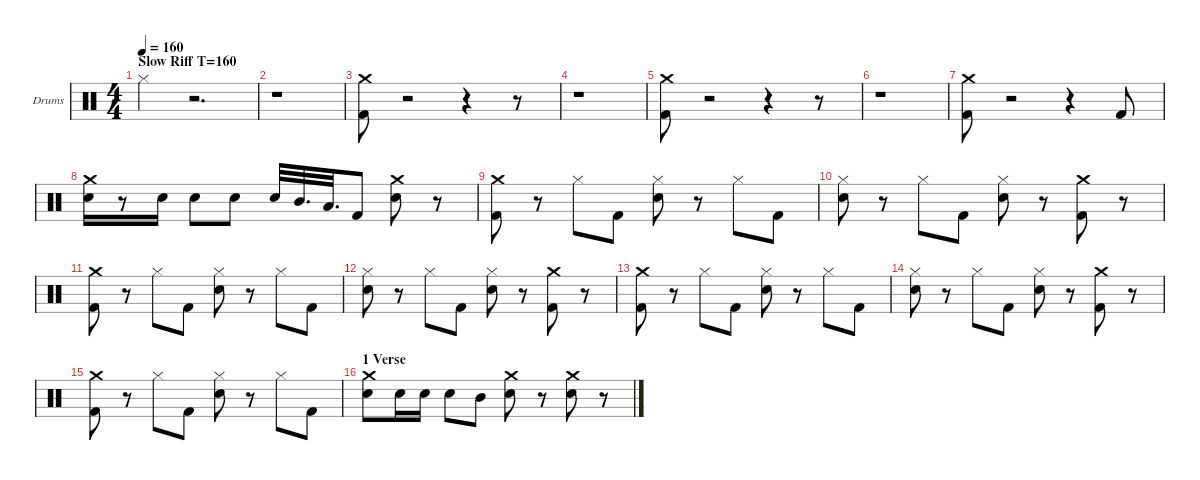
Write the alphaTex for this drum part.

\hideDynamics
\bracketExtendMode nobrackets
\firstSystemTrackNameOrientation horizontal
\otherSystemsTrackNameOrientation horizontal
\track ("Drumkit" "Drums") {instrument percussion}
\staff {score}
\articulation defaults
\ts (4 4)
\section ("" "Slow Riff T=160")
\tempo 160
\clef neutral
\ks c "Hi-Hat (closed)".4{dy f}
r.2{d} |
r.1 |
("Kick (hit) 2" "Crash medium (hit)").8 r.2 r.4 r.8 |
r.1 |
("Crash medium (hit)" "Kick (hit) 2").8 r.2 r.4 r.8 |
r.1 |
("Crash medium (hit)" "Kick (hit) 2").8 r.2 r.4 "Kick (hit) 2".8 |
("Crash medium (hit)" "Snare (hit) 2").16 r.8 "Snare (hit) 2".16 "Snare (hit) 2".8 "Snare (hit) 2".8 "Snare (hit) 2".32 "Mid Tom (hit)".32{d} "Low Tom (hit)".32{d} "Kick (hit) 2".8 ("Crash medium (hit)" "Snare (hit) 2").8 r.8 |
("Kick (hit) 2" "Crash medium (hit)").8 r.8 "Hi-Hat (closed)".8 "Kick (hit) 2".8 ("Snare (hit) 2" "Hi-Hat (closed)").8 r.8 "Hi-Hat (closed)".8 "Kick (hit) 2".8 |
("Snare (hit) 2" "Hi-Hat (closed)").8 r.8 "Hi-Hat (closed)".8 "Kick (hit) 2".8 ("Snare (hit) 2" "Hi-Hat (closed)").8 r.8 ("Kick (hit) 2" "Crash medium (hit)").8 r.8 |
("Kick (hit) 2" "Crash medium (hit)").8 r.8 "Hi-Hat (closed)".8 "Kick (hit) 2".8 ("Snare (hit) 2" "Hi-Hat (closed)").8 r.8 "Hi-Hat (closed)".8 "Kick (hit) 2".8 |
("Snare (hit) 2" "Hi-Hat (closed)").8 r.8 "Hi-Hat (closed)".8 "Kick (hit) 2".8 ("Snare (hit) 2" "Hi-Hat (closed)").8 r.8 ("Kick (hit) 2" "Crash medium (hit)").8 r.8 |
("Kick (hit) 2" "Crash medium (hit)").8 r.8 "Hi-Hat (closed)".8 "Kick (hit) 2".8 ("Snare (hit) 2" "Hi-Hat (closed)").8 r.8 "Hi-Hat (closed)".8 "Kick (hit) 2".8 |
("Snare (hit) 2" "Hi-Hat (closed)").8 r.8 "Hi-Hat (closed)".8 "Kick (hit) 2".8 ("Snare (hit) 2" "Hi-Hat (closed)").8 r.8 ("Kick (hit) 2" "Crash medium (hit)").8 r.8 |
("Kick (hit) 2" "Crash medium (hit)").8 r.8 "Hi-Hat (closed)".8 "Kick (hit) 2".8 ("Snare (hit) 2" "Hi-Hat (closed)").8 r.8 "Hi-Hat (closed)".8 "Kick (hit) 2".8 |
\section ("" "1 Verse")
("Snare (hit) 2" "Crash medium (hit)").8 "Snare (hit) 2".16 "Snare (hit) 2".16 "Snare (hit) 2".8 "Mid Tom (hit)".8 ("Crash medium (hit)" "Snare (hit) 2").8 r.8 ("Crash medium (hit)" "Snare (hit) 2").8 r.8
